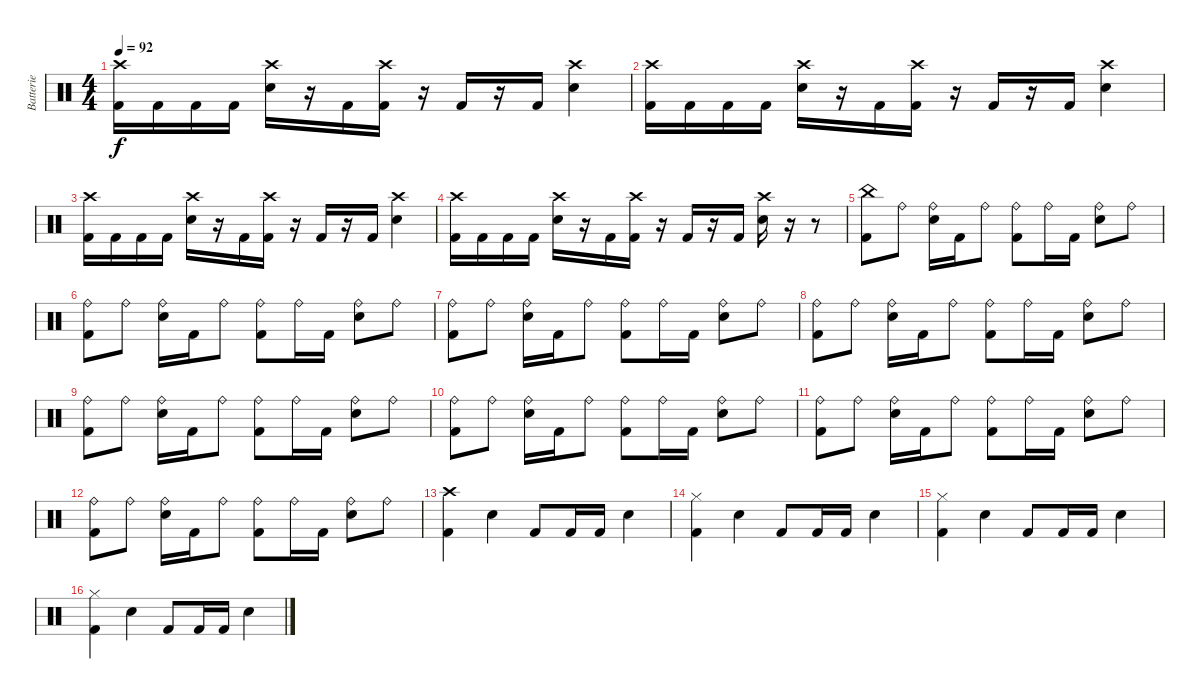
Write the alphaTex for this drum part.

\track ("Batterie" "Batterie") {instrument percussion}
\staff {score}
\articulation defaults
\ts (4 4)
\section ("" "")
\tempo 92
\clef neutral
\ks c
("Crash high (hit)" "Kick (hit) 2").16{dy f} "Kick (hit) 2".16 "Kick (hit) 2".16 "Kick (hit) 2".16 ("Crash high (hit)" "Electric Snare (hit)").16 r.16 "Kick (hit) 2".16 ("Crash high (hit)" "Kick (hit) 2").16 r.16 "Kick (hit) 2".16 r.16 "Kick (hit) 2".16 ("Crash high (hit)" "Electric Snare (hit)").4 |
("Crash high (hit)" "Kick (hit) 2").16 "Kick (hit) 2".16 "Kick (hit) 2".16 "Kick (hit) 2".16 ("Crash high (hit)" "Electric Snare (hit)").16 r.16 "Kick (hit) 2".16 ("Crash high (hit)" "Kick (hit) 2").16 r.16 "Kick (hit) 2".16 r.16 "Kick (hit) 2".16 ("Crash high (hit)" "Electric Snare (hit)").4 |
("Crash high (hit)" "Kick (hit) 2").16 "Kick (hit) 2".16 "Kick (hit) 2".16 "Kick (hit) 2".16 ("Crash high (hit)" "Electric Snare (hit)").16 r.16 "Kick (hit) 2".16 ("Crash high (hit)" "Kick (hit) 2").16 r.16 "Kick (hit) 2".16 r.16 "Kick (hit) 2".16 ("Crash high (hit)" "Electric Snare (hit)").4 |
("Crash high (hit)" "Kick (hit) 2").16 "Kick (hit) 2".16 "Kick (hit) 2".16 "Kick (hit) 2".16 ("Crash high (hit)" "Electric Snare (hit)").16 r.16 "Kick (hit) 2".16 ("Crash high (hit)" "Kick (hit) 2").16 r.16 "Kick (hit) 2".16 r.16 "Kick (hit) 2".16 ("Crash high (hit)" "Electric Snare (hit)").16 r.16 r.8 |
\section ("" "")
("China (hit)" "Kick (hit) 2").8 "Ride (bell)".8 ("Ride (bell)" "Electric Snare (hit)").16 "Kick (hit) 2".16 "Ride (bell)".8 ("Ride (bell)" "Kick (hit) 2").8 "Ride (bell)".16 "Kick (hit) 2".16 ("Ride (bell)" "Electric Snare (hit)").8 "Ride (bell)".8 |
("Ride (bell)" "Kick (hit) 2").8 "Ride (bell)".8 ("Ride (bell)" "Electric Snare (hit)").16 "Kick (hit) 2".16 "Ride (bell)".8 ("Ride (bell)" "Kick (hit) 2").8 "Ride (bell)".16 "Kick (hit) 2".16 ("Ride (bell)" "Electric Snare (hit)").8 "Ride (bell)".8 |
("Ride (bell)" "Kick (hit) 2").8 "Ride (bell)".8 ("Ride (bell)" "Electric Snare (hit)").16 "Kick (hit) 2".16 "Ride (bell)".8 ("Ride (bell)" "Kick (hit) 2").8 "Ride (bell)".16 "Kick (hit) 2".16 ("Ride (bell)" "Electric Snare (hit)").8 "Ride (bell)".8 |
("Ride (bell)" "Kick (hit) 2").8 "Ride (bell)".8 ("Ride (bell)" "Electric Snare (hit)").16 "Kick (hit) 2".16 "Ride (bell)".8 ("Ride (bell)" "Kick (hit) 2").8 "Ride (bell)".16 "Kick (hit) 2".16 ("Ride (bell)" "Electric Snare (hit)").8 "Ride (bell)".8 |
("Ride (bell)" "Kick (hit) 2").8 "Ride (bell)".8 ("Ride (bell)" "Electric Snare (hit)").16 "Kick (hit) 2".16 "Ride (bell)".8 ("Ride (bell)" "Kick (hit) 2").8 "Ride (bell)".16 "Kick (hit) 2".16 ("Ride (bell)" "Electric Snare (hit)").8 "Ride (bell)".8 |
("Ride (bell)" "Kick (hit) 2").8 "Ride (bell)".8 ("Ride (bell)" "Electric Snare (hit)").16 "Kick (hit) 2".16 "Ride (bell)".8 ("Ride (bell)" "Kick (hit) 2").8 "Ride (bell)".16 "Kick (hit) 2".16 ("Ride (bell)" "Electric Snare (hit)").8 "Ride (bell)".8 |
("Ride (bell)" "Kick (hit) 2").8 "Ride (bell)".8 ("Ride (bell)" "Electric Snare (hit)").16 "Kick (hit) 2".16 "Ride (bell)".8 ("Ride (bell)" "Kick (hit) 2").8 "Ride (bell)".16 "Kick (hit) 2".16 ("Ride (bell)" "Electric Snare (hit)").8 "Ride (bell)".8 |
("Ride (bell)" "Kick (hit) 2").8 "Ride (bell)".8 ("Ride (bell)" "Electric Snare (hit)").16 "Kick (hit) 2".16 "Ride (bell)".8 ("Ride (bell)" "Kick (hit) 2").8 "Ride (bell)".16 "Kick (hit) 2".16 ("Ride (bell)" "Electric Snare (hit)").8 "Ride (bell)".8 |
\section ("" "")
("Crash high (hit)" "Kick (hit) 2").4 "Electric Snare (hit)".4 "Kick (hit) 2".8 "Kick (hit) 2".16 "Kick (hit) 2".16 "Electric Snare (hit)".4 |
("Hi-Hat (closed)" "Kick (hit) 2").4 "Electric Snare (hit)".4 "Kick (hit) 2".8 "Kick (hit) 2".16 "Kick (hit) 2".16 "Electric Snare (hit)".4 |
("Hi-Hat (closed)" "Kick (hit) 2").4 "Electric Snare (hit)".4 "Kick (hit) 2".8 "Kick (hit) 2".16 "Kick (hit) 2".16 "Electric Snare (hit)".4 |
("Hi-Hat (closed)" "Kick (hit) 2").4 "Electric Snare (hit)".4 "Kick (hit) 2".8 "Kick (hit) 2".16 "Kick (hit) 2".16 "Electric Snare (hit)".4
